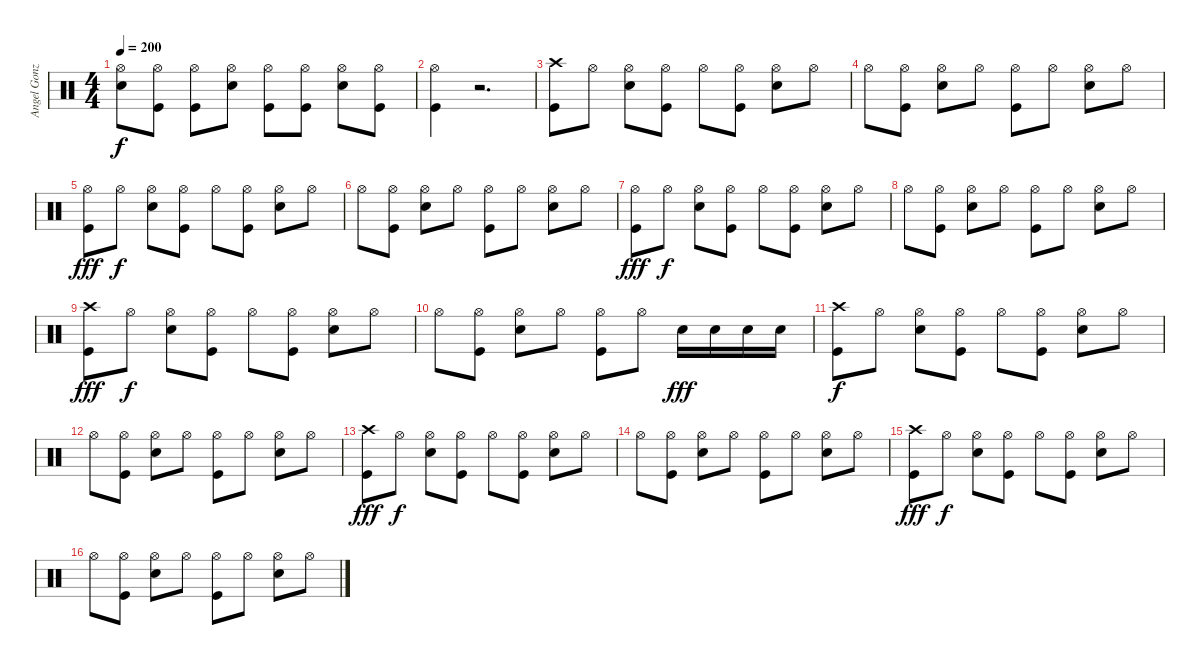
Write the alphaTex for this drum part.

\track ("Angel Gonzalez - Batería" "Angel Gonz") {instrument percussion}
\staff {score}
\articulation defaults
\ts (4 4)
\tempo 200
\clef neutral
\ks c
("Snare (hit) 2" "Hi-Hat (open)").8{dy f} ("Hi-Hat (open)" "Kick (hit)").8 ("Hi-Hat (open)" "Kick (hit)").8 ("Snare (hit) 2" "Hi-Hat (open)").8 ("Hi-Hat (open)" "Kick (hit)").8 ("Hi-Hat (open)" "Kick (hit)").8 ("Snare (hit) 2" "Hi-Hat (open)").8 ("Hi-Hat (open)" "Kick (hit)").8 |
("Hi-Hat (open)" "Kick (hit)").4 r.2{d} |
("Crash high (hit)" "Kick (hit)").8 "Hi-Hat (open)".8 ("Snare (hit) 2" "Hi-Hat (open)").8 ("Hi-Hat (open)" "Kick (hit)").8 "Hi-Hat (open)".8 ("Hi-Hat (open)" "Kick (hit)").8 ("Snare (hit) 2" "Hi-Hat (open)").8 "Hi-Hat (open)".8 |
"Hi-Hat (open)".8 ("Hi-Hat (open)" "Kick (hit)").8 ("Snare (hit) 2" "Hi-Hat (open)").8 "Hi-Hat (open)".8 ("Hi-Hat (open)" "Kick (hit)").8 "Hi-Hat (open)".8 ("Snare (hit) 2" "Hi-Hat (open)").8 "Hi-Hat (open)".8 |
("Hi-Hat (open)" "Kick (hit)").8{dy fff} "Hi-Hat (open)".8{dy f} ("Snare (hit) 2" "Hi-Hat (open)").8 ("Hi-Hat (open)" "Kick (hit)").8 "Hi-Hat (open)".8 ("Hi-Hat (open)" "Kick (hit)").8 ("Snare (hit) 2" "Hi-Hat (open)").8 "Hi-Hat (open)".8 |
"Hi-Hat (open)".8 ("Hi-Hat (open)" "Kick (hit)").8 ("Snare (hit) 2" "Hi-Hat (open)").8 "Hi-Hat (open)".8 ("Hi-Hat (open)" "Kick (hit)").8 "Hi-Hat (open)".8 ("Snare (hit) 2" "Hi-Hat (open)").8 "Hi-Hat (open)".8 |
("Hi-Hat (open)" "Kick (hit)").8{dy fff} "Hi-Hat (open)".8{dy f} ("Snare (hit) 2" "Hi-Hat (open)").8 ("Hi-Hat (open)" "Kick (hit)").8 "Hi-Hat (open)".8 ("Hi-Hat (open)" "Kick (hit)").8 ("Snare (hit) 2" "Hi-Hat (open)").8 "Hi-Hat (open)".8 |
"Hi-Hat (open)".8 ("Hi-Hat (open)" "Kick (hit)").8 ("Snare (hit) 2" "Hi-Hat (open)").8 "Hi-Hat (open)".8 ("Hi-Hat (open)" "Kick (hit)").8 "Hi-Hat (open)".8 ("Snare (hit) 2" "Hi-Hat (open)").8 "Hi-Hat (open)".8 |
("Crash high (hit)" "Kick (hit)").8{dy fff} "Hi-Hat (open)".8{dy f} ("Snare (hit) 2" "Hi-Hat (open)").8 ("Hi-Hat (open)" "Kick (hit)").8 "Hi-Hat (open)".8 ("Hi-Hat (open)" "Kick (hit)").8 ("Snare (hit) 2" "Hi-Hat (open)").8 "Hi-Hat (open)".8 |
"Hi-Hat (open)".8 ("Hi-Hat (open)" "Kick (hit)").8 ("Snare (hit) 2" "Hi-Hat (open)").8 "Hi-Hat (open)".8 ("Hi-Hat (open)" "Kick (hit)").8 "Hi-Hat (open)".8 "Snare (hit) 2".16{dy fff} "Snare (hit) 2".16 "Snare (hit) 2".16 "Snare (hit) 2".16 |
("Crash high (hit)" "Kick (hit)").8{dy f} "Hi-Hat (open)".8 ("Snare (hit) 2" "Hi-Hat (open)").8 ("Hi-Hat (open)" "Kick (hit)").8 "Hi-Hat (open)".8 ("Hi-Hat (open)" "Kick (hit)").8 ("Snare (hit) 2" "Hi-Hat (open)").8 "Hi-Hat (open)".8 |
"Hi-Hat (open)".8 ("Hi-Hat (open)" "Kick (hit)").8 ("Snare (hit) 2" "Hi-Hat (open)").8 "Hi-Hat (open)".8 ("Hi-Hat (open)" "Kick (hit)").8 "Hi-Hat (open)".8 ("Snare (hit) 2" "Hi-Hat (open)").8 "Hi-Hat (open)".8 |
("Crash high (hit)" "Kick (hit)").8{dy fff} "Hi-Hat (open)".8{dy f} ("Snare (hit) 2" "Hi-Hat (open)").8 ("Hi-Hat (open)" "Kick (hit)").8 "Hi-Hat (open)".8 ("Hi-Hat (open)" "Kick (hit)").8 ("Snare (hit) 2" "Hi-Hat (open)").8 "Hi-Hat (open)".8 |
"Hi-Hat (open)".8 ("Hi-Hat (open)" "Kick (hit)").8 ("Snare (hit) 2" "Hi-Hat (open)").8 "Hi-Hat (open)".8 ("Hi-Hat (open)" "Kick (hit)").8 "Hi-Hat (open)".8 ("Snare (hit) 2" "Hi-Hat (open)").8 "Hi-Hat (open)".8 |
("Crash high (hit)" "Kick (hit)").8{dy fff} "Hi-Hat (open)".8{dy f} ("Snare (hit) 2" "Hi-Hat (open)").8 ("Hi-Hat (open)" "Kick (hit)").8 "Hi-Hat (open)".8 ("Hi-Hat (open)" "Kick (hit)").8 ("Snare (hit) 2" "Hi-Hat (open)").8 "Hi-Hat (open)".8 |
"Hi-Hat (open)".8 ("Hi-Hat (open)" "Kick (hit)").8 ("Snare (hit) 2" "Hi-Hat (open)").8 "Hi-Hat (open)".8 ("Hi-Hat (open)" "Kick (hit)").8 "Hi-Hat (open)".8 ("Snare (hit) 2" "Hi-Hat (open)").8 "Hi-Hat (open)".8
